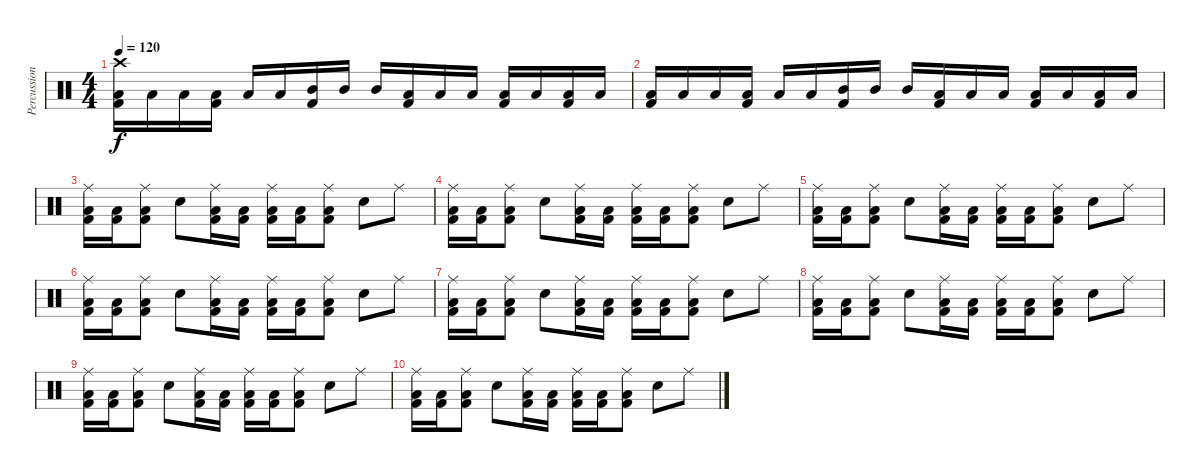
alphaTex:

\track ("Percussion" "Percussion") {instrument percussion}
\staff {score}
\articulation defaults
\ts (4 4)
\tempo 120
\clef neutral
\ks c
("Crash high (hit)" "Low Floor Tom (hit)" "Kick (hit) 2").16{dy f} "Low Floor Tom (hit)".16 "Low Floor Tom (hit)".16 ("Low Tom (hit)" "Kick (hit) 2").16 "Low Tom (hit)".16 "Low Tom (hit)".16 ("Mid Tom (hit)" "Kick (hit) 2").16 "Mid Tom (hit)".16 "Mid Tom (hit)".16 ("Low Tom (hit)" "Kick (hit) 2").16 "Low Tom (hit)".16 "Low Tom (hit)".16 ("Low Floor Tom (hit)" "Kick (hit) 2").16 "Low Floor Tom (hit)".16 ("Low Tom (hit)" "Kick (hit) 2").16 "Low Tom (hit)".16 |
("Low Floor Tom (hit)" "Kick (hit) 2").16 "Low Floor Tom (hit)".16 "Low Floor Tom (hit)".16 ("Low Tom (hit)" "Kick (hit) 2").16 "Low Tom (hit)".16 "Low Tom (hit)".16 ("Mid Tom (hit)" "Kick (hit) 2").16 "Mid Tom (hit)".16 "Mid Tom (hit)".16 ("Low Tom (hit)" "Kick (hit) 2").16 "Low Tom (hit)".16 "Low Tom (hit)".16 ("Low Floor Tom (hit)" "Kick (hit) 2").16 "Low Floor Tom (hit)".16 ("Low Tom (hit)" "Kick (hit) 2").16 "Low Tom (hit)".16 |
("Ride (middle)" "Low Floor Tom (hit)" "Kick (hit) 2").16 ("Low Floor Tom (hit)" "Kick (hit) 2").16 ("Ride (middle)" "Low Floor Tom (hit)" "Kick (hit) 2").8 "Electric Snare (hit)".8 ("Ride (middle)" "Low Floor Tom (hit)" "Kick (hit) 2").16 ("Low Floor Tom (hit)" "Kick (hit) 2").16 ("Ride (middle)" "Low Floor Tom (hit)" "Kick (hit) 2").16 ("Low Floor Tom (hit)" "Kick (hit) 2").16 ("Ride (middle)" "Low Floor Tom (hit)" "Kick (hit) 2").8 "Electric Snare (hit)".8 "Ride (middle)".8 |
("Ride (middle)" "Low Floor Tom (hit)" "Kick (hit) 2").16 ("Low Floor Tom (hit)" "Kick (hit) 2").16 ("Ride (middle)" "Low Floor Tom (hit)" "Kick (hit) 2").8 "Electric Snare (hit)".8 ("Ride (middle)" "Low Floor Tom (hit)" "Kick (hit) 2").16 ("Low Floor Tom (hit)" "Kick (hit) 2").16 ("Ride (middle)" "Low Floor Tom (hit)" "Kick (hit) 2").16 ("Low Floor Tom (hit)" "Kick (hit) 2").16 ("Ride (middle)" "Low Floor Tom (hit)" "Kick (hit) 2").8 "Electric Snare (hit)".8 "Ride (middle)".8 |
("Ride (middle)" "Low Floor Tom (hit)" "Kick (hit) 2").16 ("Low Floor Tom (hit)" "Kick (hit) 2").16 ("Ride (middle)" "Low Floor Tom (hit)" "Kick (hit) 2").8 "Electric Snare (hit)".8 ("Ride (middle)" "Low Floor Tom (hit)" "Kick (hit) 2").16 ("Low Floor Tom (hit)" "Kick (hit) 2").16 ("Ride (middle)" "Low Floor Tom (hit)" "Kick (hit) 2").16 ("Low Floor Tom (hit)" "Kick (hit) 2").16 ("Ride (middle)" "Low Floor Tom (hit)" "Kick (hit) 2").8 "Electric Snare (hit)".8 "Ride (middle)".8 |
("Ride (middle)" "Low Floor Tom (hit)" "Kick (hit) 2").16 ("Low Floor Tom (hit)" "Kick (hit) 2").16 ("Ride (middle)" "Low Floor Tom (hit)" "Kick (hit) 2").8 "Electric Snare (hit)".8 ("Ride (middle)" "Low Floor Tom (hit)" "Kick (hit) 2").16 ("Low Floor Tom (hit)" "Kick (hit) 2").16 ("Ride (middle)" "Low Floor Tom (hit)" "Kick (hit) 2").16 ("Low Floor Tom (hit)" "Kick (hit) 2").16 ("Ride (middle)" "Low Floor Tom (hit)" "Kick (hit) 2").8 "Electric Snare (hit)".8 "Ride (middle)".8 |
("Ride (middle)" "Low Floor Tom (hit)" "Kick (hit) 2").16 ("Low Floor Tom (hit)" "Kick (hit) 2").16 ("Ride (middle)" "Low Floor Tom (hit)" "Kick (hit) 2").8 "Electric Snare (hit)".8 ("Ride (middle)" "Low Floor Tom (hit)" "Kick (hit) 2").16 ("Low Floor Tom (hit)" "Kick (hit) 2").16 ("Ride (middle)" "Low Floor Tom (hit)" "Kick (hit) 2").16 ("Low Floor Tom (hit)" "Kick (hit) 2").16 ("Ride (middle)" "Low Floor Tom (hit)" "Kick (hit) 2").8 "Electric Snare (hit)".8 "Ride (middle)".8 |
("Ride (middle)" "Low Floor Tom (hit)" "Kick (hit) 2").16 ("Low Floor Tom (hit)" "Kick (hit) 2").16 ("Ride (middle)" "Low Floor Tom (hit)" "Kick (hit) 2").8 "Electric Snare (hit)".8 ("Ride (middle)" "Low Floor Tom (hit)" "Kick (hit) 2").16 ("Low Floor Tom (hit)" "Kick (hit) 2").16 ("Ride (middle)" "Low Floor Tom (hit)" "Kick (hit) 2").16 ("Low Floor Tom (hit)" "Kick (hit) 2").16 ("Ride (middle)" "Low Floor Tom (hit)" "Kick (hit) 2").8 "Electric Snare (hit)".8 "Ride (middle)".8 |
("Ride (middle)" "Low Floor Tom (hit)" "Kick (hit) 2").16 ("Low Floor Tom (hit)" "Kick (hit) 2").16 ("Ride (middle)" "Low Floor Tom (hit)" "Kick (hit) 2").8 "Electric Snare (hit)".8 ("Ride (middle)" "Low Floor Tom (hit)" "Kick (hit) 2").16 ("Low Floor Tom (hit)" "Kick (hit) 2").16 ("Ride (middle)" "Low Floor Tom (hit)" "Kick (hit) 2").16 ("Low Floor Tom (hit)" "Kick (hit) 2").16 ("Ride (middle)" "Low Floor Tom (hit)" "Kick (hit) 2").8 "Electric Snare (hit)".8 "Ride (middle)".8 |
("Ride (middle)" "Low Floor Tom (hit)" "Kick (hit) 2").16 ("Low Floor Tom (hit)" "Kick (hit) 2").16 ("Ride (middle)" "Low Floor Tom (hit)" "Kick (hit) 2").8 "Electric Snare (hit)".8 ("Ride (middle)" "Low Floor Tom (hit)" "Kick (hit) 2").16 ("Low Floor Tom (hit)" "Kick (hit) 2").16 ("Ride (middle)" "Low Floor Tom (hit)" "Kick (hit) 2").16 ("Low Floor Tom (hit)" "Kick (hit) 2").16 ("Ride (middle)" "Low Floor Tom (hit)" "Kick (hit) 2").8 "Electric Snare (hit)".8 "Ride (middle)".8
